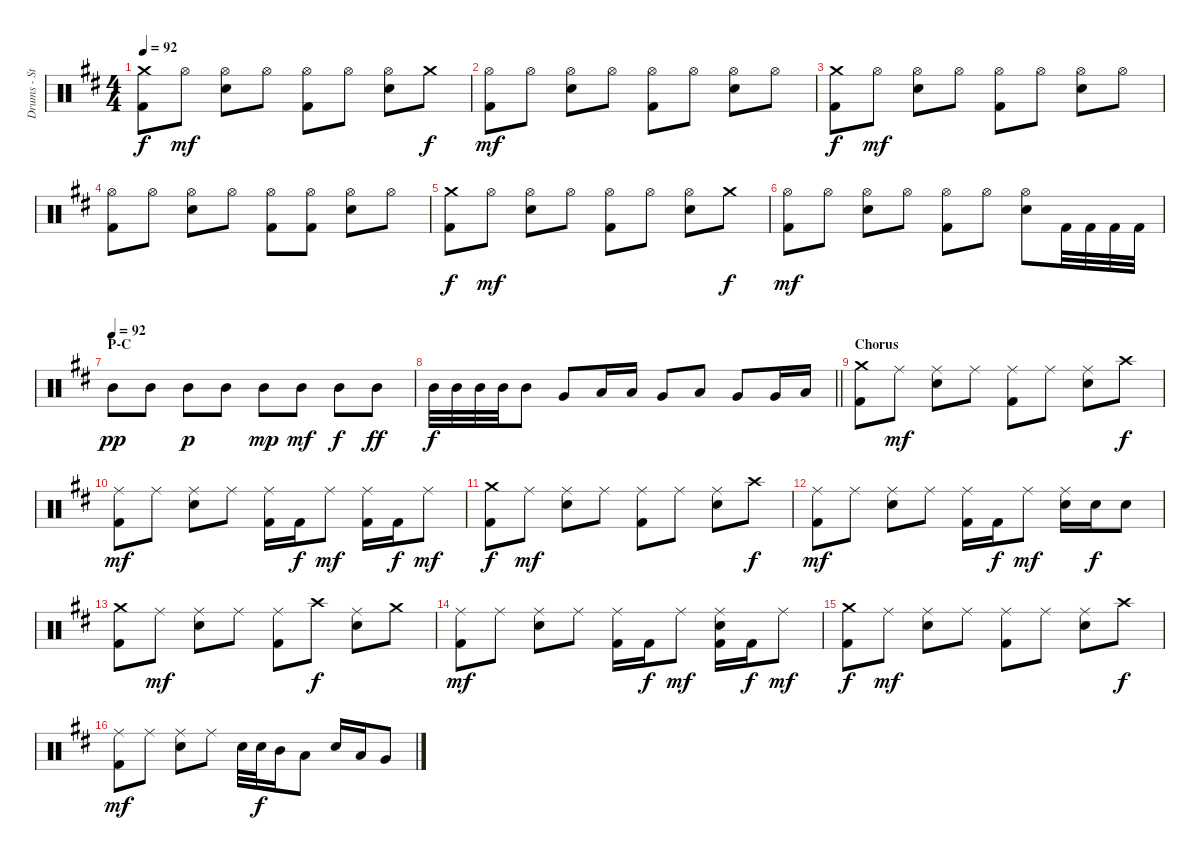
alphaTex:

\track ("Drums - Steve Wacholz" "Drums - St") {instrument percussion}
\staff {score}
\articulation defaults
\ts (4 4)
\tempo 92
\clef neutral
\ks d
("Crash medium (hit)" "Kick (hit) 2").8{dy f} "Hi-Hat (open)".8{dy mf} ("Hi-Hat (open)" "Electric Snare (hit)").8 "Hi-Hat (open)".8 ("Hi-Hat (open)" "Kick (hit) 2").8 "Hi-Hat (open)".8 ("Hi-Hat (open)" "Electric Snare (hit)").8 "Crash medium (hit)".8{dy f} |
("Hi-Hat (open)" "Kick (hit) 2").8{dy mf} "Hi-Hat (open)".8 ("Hi-Hat (open)" "Electric Snare (hit)").8 "Hi-Hat (open)".8 ("Hi-Hat (open)" "Kick (hit) 2").8 "Hi-Hat (open)".8 ("Hi-Hat (open)" "Electric Snare (hit)").8 "Hi-Hat (open)".8 |
("Crash medium (hit)" "Kick (hit) 2").8{dy f} "Hi-Hat (open)".8{dy mf} ("Hi-Hat (open)" "Electric Snare (hit)").8 "Hi-Hat (open)".8 ("Hi-Hat (open)" "Kick (hit) 2").8 "Hi-Hat (open)".8 ("Hi-Hat (open)" "Electric Snare (hit)").8 "Hi-Hat (open)".8 |
("Hi-Hat (open)" "Kick (hit) 2").8 "Hi-Hat (open)".8 ("Hi-Hat (open)" "Electric Snare (hit)").8 "Hi-Hat (open)".8 ("Hi-Hat (open)" "Kick (hit) 2").8 ("Hi-Hat (open)" "Kick (hit) 2").8 ("Hi-Hat (open)" "Electric Snare (hit)").8 "Hi-Hat (open)".8 |
("Crash medium (hit)" "Kick (hit) 2").8{dy f} "Hi-Hat (open)".8{dy mf} ("Hi-Hat (open)" "Electric Snare (hit)").8 "Hi-Hat (open)".8 ("Hi-Hat (open)" "Kick (hit) 2").8 "Hi-Hat (open)".8 ("Hi-Hat (open)" "Electric Snare (hit)").8 "Crash medium (hit)".8{dy f} |
("Hi-Hat (open)" "Kick (hit) 2").8{dy mf} "Hi-Hat (open)".8 ("Hi-Hat (open)" "Electric Snare (hit)").8 "Hi-Hat (open)".8 ("Hi-Hat (open)" "Kick (hit) 2").8 "Hi-Hat (open)".8 ("Hi-Hat (open)" "Electric Snare (hit)").8 "Kick (hit) 2".32 "Kick (hit) 2".32 "Kick (hit) 2".32 "Kick (hit) 2".32 |
\section ("" "P-C")
\tempo (92)
"Mid Tom (hit)".8{dy pp} "Mid Tom (hit)".8 "Mid Tom (hit)".8{dy p} "Mid Tom (hit)".8 "Mid Tom (hit)".8{dy mp} "Mid Tom (hit)".8{dy mf} "Mid Tom (hit)".8{dy f} "Mid Tom (hit)".8{dy ff} |
\barLineRight lightlight "Mid Tom (hit)".32{dy f} "Mid Tom (hit)".32 "Mid Tom (hit)".32 "Mid Tom (hit)".32 "Mid Tom (hit)".8 "Very Low Tom (hit)".8 "Low Tom (hit)".16 "Low Tom (hit)".16 "Very Low Tom (hit)".8 "Low Floor Tom (hit)".8 "Very Low Tom (hit)".8 "Very Low Tom (hit)".16 "Low Floor Tom (hit)".16
|
\section ("" "Chorus")
("Crash medium (hit)" "Kick (hit) 2").8 "Ride (middle)".8{dy mf} ("Ride (middle)" "Electric Snare (hit)").8 "Ride (middle)".8 ("Ride (middle)" "Kick (hit) 2").8 "Ride (middle)".8 ("Ride (middle)" "Electric Snare (hit)").8 "Crash high (hit)".8{dy f} |
("Ride (middle)" "Kick (hit) 2").8{dy mf} "Ride (middle)".8 ("Ride (middle)" "Electric Snare (hit)").8 "Ride (middle)".8 ("Ride (middle)" "Kick (hit) 2").16 "Kick (hit) 2".16{dy f} "Ride (middle)".8{dy mf} ("Ride (middle)" "Kick (hit) 2").16 "Kick (hit) 2".16{dy f} "Ride (middle)".8{dy mf} |
("Crash medium (hit)" "Kick (hit) 2").8{dy f} "Ride (middle)".8{dy mf} ("Ride (middle)" "Electric Snare (hit)").8 "Ride (middle)".8 ("Ride (middle)" "Kick (hit) 2").8 "Ride (middle)".8 ("Ride (middle)" "Electric Snare (hit)").8 "Crash high (hit)".8{dy f} |
("Ride (middle)" "Kick (hit) 2").8{dy mf} "Ride (middle)".8 ("Ride (middle)" "Electric Snare (hit)").8 "Ride (middle)".8 ("Ride (middle)" "Kick (hit) 2").16 "Kick (hit) 2".16{dy f} "Ride (middle)".8{dy mf} ("Ride (middle)" "Electric Snare (hit)").16 "Electric Snare (hit)".16{dy f} "Electric Snare (hit)".8 |
("Crash medium (hit)" "Kick (hit) 2").8 "Ride (middle)".8{dy mf} ("Ride (middle)" "Electric Snare (hit)").8 "Ride (middle)".8 ("Ride (middle)" "Kick (hit) 2").8 "Crash high (hit)".8{dy f} ("Ride (middle)" "Electric Snare (hit)").8 "Crash medium (hit)".8 |
("Ride (middle)" "Kick (hit) 2").8{dy mf} "Ride (middle)".8 ("Ride (middle)" "Electric Snare (hit)").8 "Ride (middle)".8 ("Ride (middle)" "Kick (hit) 2").16 "Kick (hit) 2".16{dy f} "Ride (middle)".8{dy mf} ("Ride (middle)" "Electric Snare (hit)" "Kick (hit) 2").16 "Kick (hit) 2".16{dy f} "Ride (middle)".8{dy mf} |
("Crash medium (hit)" "Kick (hit) 2").8{dy f} "Ride (middle)".8{dy mf} ("Ride (middle)" "Electric Snare (hit)").8 "Ride (middle)".8 ("Ride (middle)" "Kick (hit) 2").8 "Ride (middle)".8 ("Ride (middle)" "Electric Snare (hit)").8 "Crash high (hit)".8{dy f} |
("Ride (middle)" "Kick (hit) 2").8{dy mf} "Ride (middle)".8 ("Ride (middle)" "Electric Snare (hit)").8 "Ride (middle)".8 "Electric Snare (hit)".32 "Electric Snare (hit)".32{dy f} "Mid Tom (hit)".16 "Low Tom (hit)".8 "Electric Snare (hit)".16 "Low Tom (hit)".16 "Very Low Tom (hit)".8
